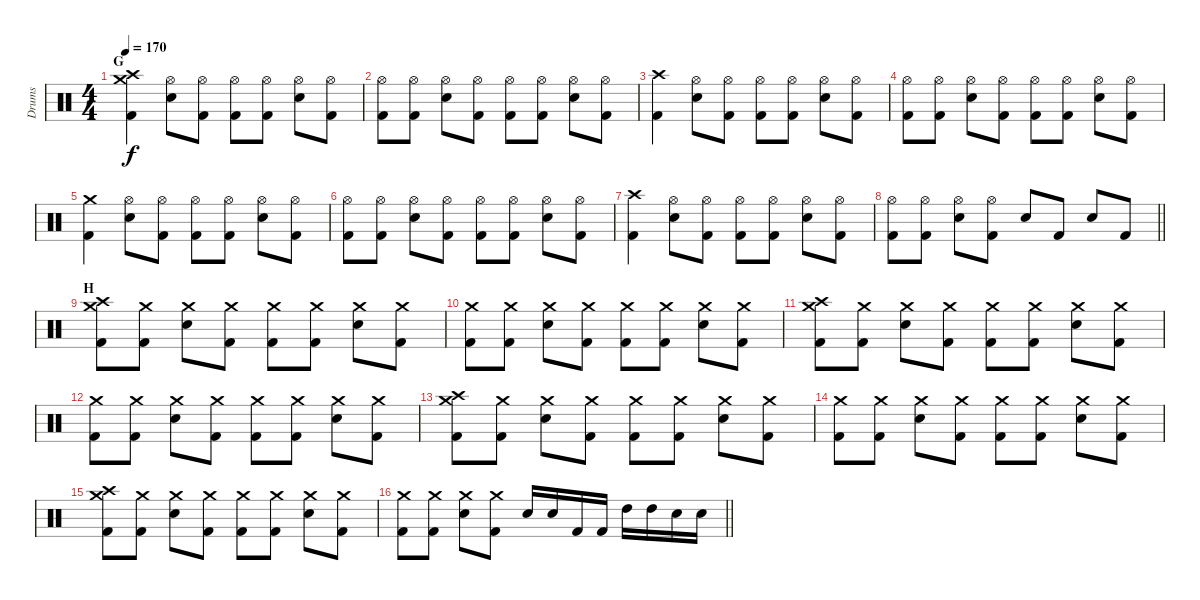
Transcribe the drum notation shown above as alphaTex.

\track ("Drums" "Drums") {instrument percussion}
\staff {score}
\articulation defaults
\ts (4 4)
\section ("" "G")
\tempo 170
\clef neutral
\ks c
("Kick (hit) 2" "Crash high (hit)" "Crash medium (hit)").4{dy f} ("Snare (hit) 2" "Hi-Hat (open)").8 ("Kick (hit) 2" "Hi-Hat (open)").8 ("Kick (hit) 2" "Hi-Hat (open)").8 ("Kick (hit) 2" "Hi-Hat (open)").8 ("Snare (hit) 2" "Hi-Hat (open)").8 ("Kick (hit) 2" "Hi-Hat (open)").8 |
("Kick (hit) 2" "Hi-Hat (open)").8 ("Kick (hit) 2" "Hi-Hat (open)").8 ("Snare (hit) 2" "Hi-Hat (open)").8 ("Kick (hit) 2" "Hi-Hat (open)").8 ("Kick (hit) 2" "Hi-Hat (open)").8 ("Kick (hit) 2" "Hi-Hat (open)").8 ("Snare (hit) 2" "Hi-Hat (open)").8 ("Kick (hit) 2" "Hi-Hat (open)").8 |
("Kick (hit) 2" "Crash high (hit)").4 ("Snare (hit) 2" "Hi-Hat (open)").8 ("Kick (hit) 2" "Hi-Hat (open)").8 ("Kick (hit) 2" "Hi-Hat (open)").8 ("Kick (hit) 2" "Hi-Hat (open)").8 ("Snare (hit) 2" "Hi-Hat (open)").8 ("Kick (hit) 2" "Hi-Hat (open)").8 |
("Kick (hit) 2" "Hi-Hat (open)").8 ("Kick (hit) 2" "Hi-Hat (open)").8 ("Snare (hit) 2" "Hi-Hat (open)").8 ("Kick (hit) 2" "Hi-Hat (open)").8 ("Kick (hit) 2" "Hi-Hat (open)").8 ("Kick (hit) 2" "Hi-Hat (open)").8 ("Snare (hit) 2" "Hi-Hat (open)").8 ("Kick (hit) 2" "Hi-Hat (open)").8 |
("Kick (hit) 2" "Crash medium (hit)").4 ("Snare (hit) 2" "Hi-Hat (open)").8 ("Kick (hit) 2" "Hi-Hat (open)").8 ("Kick (hit) 2" "Hi-Hat (open)").8 ("Kick (hit) 2" "Hi-Hat (open)").8 ("Snare (hit) 2" "Hi-Hat (open)").8 ("Kick (hit) 2" "Hi-Hat (open)").8 |
("Kick (hit) 2" "Hi-Hat (open)").8 ("Kick (hit) 2" "Hi-Hat (open)").8 ("Snare (hit) 2" "Hi-Hat (open)").8 ("Kick (hit) 2" "Hi-Hat (open)").8 ("Kick (hit) 2" "Hi-Hat (open)").8 ("Kick (hit) 2" "Hi-Hat (open)").8 ("Snare (hit) 2" "Hi-Hat (open)").8 ("Kick (hit) 2" "Hi-Hat (open)").8 |
("Kick (hit) 2" "Crash high (hit)").4 ("Snare (hit) 2" "Hi-Hat (open)").8 ("Kick (hit) 2" "Hi-Hat (open)").8 ("Kick (hit) 2" "Hi-Hat (open)").8 ("Kick (hit) 2" "Hi-Hat (open)").8 ("Snare (hit) 2" "Hi-Hat (open)").8 ("Kick (hit) 2" "Hi-Hat (open)").8 |
\barLineRight lightlight
("Kick (hit) 2" "Hi-Hat (open)").8 ("Kick (hit) 2" "Hi-Hat (open)").8 ("Snare (hit) 2" "Hi-Hat (open)").8 ("Kick (hit) 2" "Hi-Hat (open)").8 "Snare (hit) 2".8 "Kick (hit) 2".8 "Snare (hit) 2".8 "Kick (hit) 2".8 |
\section ("" "H")
("Kick (hit) 2" "Crash high (hit)" "Crash medium (hit)").8 ("Kick (hit) 2" "Crash medium (hit)").8 ("Snare (hit) 2" "Crash medium (hit)").8 ("Kick (hit) 2" "Crash medium (hit)").8 ("Kick (hit) 2" "Crash medium (hit)").8 ("Kick (hit) 2" "Crash medium (hit)").8 ("Snare (hit) 2" "Crash medium (hit)").8 ("Kick (hit) 2" "Crash medium (hit)").8 |
("Kick (hit) 2" "Crash medium (hit)").8 ("Kick (hit) 2" "Crash medium (hit)").8 ("Snare (hit) 2" "Crash medium (hit)").8 ("Kick (hit) 2" "Crash medium (hit)").8 ("Kick (hit) 2" "Crash medium (hit)").8 ("Kick (hit) 2" "Crash medium (hit)").8 ("Snare (hit) 2" "Crash medium (hit)").8 ("Kick (hit) 2" "Crash medium (hit)").8 |
("Kick (hit) 2" "Crash high (hit)" "Crash medium (hit)").8 ("Kick (hit) 2" "Crash medium (hit)").8 ("Snare (hit) 2" "Crash medium (hit)").8 ("Kick (hit) 2" "Crash medium (hit)").8 ("Kick (hit) 2" "Crash medium (hit)").8 ("Kick (hit) 2" "Crash medium (hit)").8 ("Snare (hit) 2" "Crash medium (hit)").8 ("Kick (hit) 2" "Crash medium (hit)").8 |
("Kick (hit) 2" "Crash medium (hit)").8 ("Kick (hit) 2" "Crash medium (hit)").8 ("Snare (hit) 2" "Crash medium (hit)").8 ("Kick (hit) 2" "Crash medium (hit)").8 ("Kick (hit) 2" "Crash medium (hit)").8 ("Kick (hit) 2" "Crash medium (hit)").8 ("Snare (hit) 2" "Crash medium (hit)").8 ("Kick (hit) 2" "Crash medium (hit)").8 |
("Kick (hit) 2" "Crash high (hit)" "Crash medium (hit)").8 ("Kick (hit) 2" "Crash medium (hit)").8 ("Snare (hit) 2" "Crash medium (hit)").8 ("Kick (hit) 2" "Crash medium (hit)").8 ("Kick (hit) 2" "Crash medium (hit)").8 ("Kick (hit) 2" "Crash medium (hit)").8 ("Snare (hit) 2" "Crash medium (hit)").8 ("Kick (hit) 2" "Crash medium (hit)").8 |
("Kick (hit) 2" "Crash medium (hit)").8 ("Kick (hit) 2" "Crash medium (hit)").8 ("Snare (hit) 2" "Crash medium (hit)").8 ("Kick (hit) 2" "Crash medium (hit)").8 ("Kick (hit) 2" "Crash medium (hit)").8 ("Kick (hit) 2" "Crash medium (hit)").8 ("Snare (hit) 2" "Crash medium (hit)").8 ("Kick (hit) 2" "Crash medium (hit)").8 |
("Kick (hit) 2" "Crash high (hit)" "Crash medium (hit)").8 ("Kick (hit) 2" "Crash medium (hit)").8 ("Snare (hit) 2" "Crash medium (hit)").8 ("Kick (hit) 2" "Crash medium (hit)").8 ("Kick (hit) 2" "Crash medium (hit)").8 ("Kick (hit) 2" "Crash medium (hit)").8 ("Snare (hit) 2" "Crash medium (hit)").8 ("Kick (hit) 2" "Crash medium (hit)").8 |
\barLineRight lightlight
("Kick (hit) 2" "Crash medium (hit)").8 ("Kick (hit) 2" "Crash medium (hit)").8 ("Snare (hit) 2" "Crash medium (hit)").8 ("Kick (hit) 2" "Crash medium (hit)").8 "Snare (hit) 2".16 "Snare (hit) 2".16 "Kick (hit) 2".16 "Kick (hit) 2".16 "High Tom (hit)".16 "High Tom (hit)".16 "Snare (hit) 2".16 "Snare (hit) 2".16
